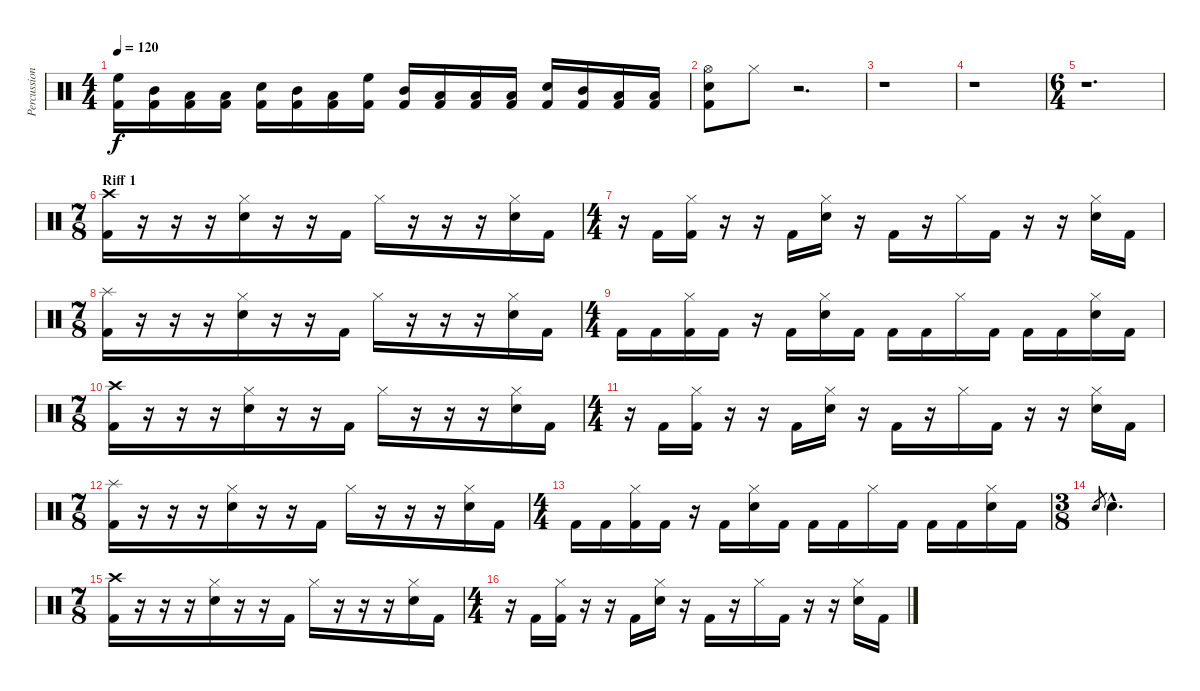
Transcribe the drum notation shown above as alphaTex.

\track ("Percussion" "Percussion") {instrument percussion}
\staff {score}
\articulation defaults
\ts (4 4)
\tempo 120
\clef neutral
\ks c
("High Floor Tom (hit)" "Kick (hit) 2").16{dy f} ("Mid Tom (hit)" "Kick (hit) 2").16 ("Low Tom (hit)" "Kick (hit) 2").16 ("Low Floor Tom (hit)" "Kick (hit) 2").16 ("Electric Snare (hit)" "Kick (hit) 2").16 ("Mid Tom (hit)" "Kick (hit) 2").16 ("Low Tom (hit)" "Kick (hit) 2").16 ("High Floor Tom (hit)" "Kick (hit) 2").16 ("Mid Tom (hit)" "Kick (hit) 2").16 ("Low Tom (hit)" "Kick (hit) 2").16 ("Low Floor Tom (hit)" "Kick (hit) 2").16 ("Low Tom (hit)" "Kick (hit) 2").16 ("Electric Snare (hit)" "Kick (hit) 2").16 ("Mid Tom (hit)" "Kick (hit) 2").16 ("Low Tom (hit)" "Kick (hit) 2").16 ("Low Floor Tom (hit)" "Kick (hit) 2").16 |
("Hi-Hat (open)" "Electric Snare (hit)" "Kick (hit) 2").8 "Hi-Hat (closed)".8 r.2{d} |
r.1 |
r.1 |
\ts (6 4)
r.1{d} |
\ts (7 8)
\section ("" "Riff 1")
("Crash high (hit)" "Kick (hit) 2").16 r.16 r.16 r.16 ("Hi-Hat (closed)" "Electric Snare (hit)").16 r.16 r.16 "Kick (hit) 2".16 "Hi-Hat (closed)".16 r.16 r.16 r.16 ("Hi-Hat (closed)" "Electric Snare (hit)").16 "Kick (hit) 2".16 |
\ts (4 4)
r.16 "Kick (hit) 2".16 ("Hi-Hat (closed)" "Kick (hit) 2").16 r.16 r.16 "Kick (hit) 2".16 ("Hi-Hat (closed)" "Electric Snare (hit)").16 r.16 "Kick (hit) 2".16 r.16 "Hi-Hat (closed)".16 "Kick (hit) 2".16 r.16 r.16 ("Hi-Hat (closed)" "Electric Snare (hit)").16 "Kick (hit) 2".16 |
\ts (7 8)
("Splash (hit)" "Kick (hit) 2").16 r.16 r.16 r.16 ("Hi-Hat (closed)" "Electric Snare (hit)").16 r.16 r.16 "Kick (hit) 2".16 "Hi-Hat (closed)".16 r.16 r.16 r.16 ("Hi-Hat (closed)" "Electric Snare (hit)").16 "Kick (hit) 2".16 |
\ts (4 4)
"Kick (hit) 2".16 "Kick (hit) 2".16 ("Hi-Hat (closed)" "Kick (hit) 2").16 "Kick (hit) 2".16 r.16 "Kick (hit) 2".16 ("Hi-Hat (closed)" "Electric Snare (hit)").16 "Kick (hit) 2".16 "Kick (hit) 2".16 "Kick (hit) 2".16 "Hi-Hat (closed)".16 "Kick (hit) 2".16 "Kick (hit) 2".16 "Kick (hit) 2".16 ("Hi-Hat (closed)" "Electric Snare (hit)").16 "Kick (hit) 2".16 |
\ts (7 8)
("Crash high (hit)" "Kick (hit) 2").16 r.16 r.16 r.16 ("Hi-Hat (closed)" "Electric Snare (hit)").16 r.16 r.16 "Kick (hit) 2".16 "Hi-Hat (closed)".16 r.16 r.16 r.16 ("Hi-Hat (closed)" "Electric Snare (hit)").16 "Kick (hit) 2".16 |
\ts (4 4)
r.16 "Kick (hit) 2".16 ("Hi-Hat (closed)" "Kick (hit) 2").16 r.16 r.16 "Kick (hit) 2".16 ("Hi-Hat (closed)" "Electric Snare (hit)").16 r.16 "Kick (hit) 2".16 r.16 "Hi-Hat (closed)".16 "Kick (hit) 2".16 r.16 r.16 ("Hi-Hat (closed)" "Electric Snare (hit)").16 "Kick (hit) 2".16 |
\ts (7 8)
("Splash (hit)" "Kick (hit) 2").16 r.16 r.16 r.16 ("Hi-Hat (closed)" "Electric Snare (hit)").16 r.16 r.16 "Kick (hit) 2".16 "Hi-Hat (closed)".16 r.16 r.16 r.16 ("Hi-Hat (closed)" "Electric Snare (hit)").16 "Kick (hit) 2".16 |
\ts (4 4)
"Kick (hit) 2".16 "Kick (hit) 2".16 ("Hi-Hat (closed)" "Kick (hit) 2").16 "Kick (hit) 2".16 r.16 "Kick (hit) 2".16 ("Hi-Hat (closed)" "Electric Snare (hit)").16 "Kick (hit) 2".16 "Kick (hit) 2".16 "Kick (hit) 2".16 "Hi-Hat (closed)".16 "Kick (hit) 2".16 "Kick (hit) 2".16 "Kick (hit) 2".16 ("Hi-Hat (closed)" "Electric Snare (hit)").16 "Kick (hit) 2".16 |
\ts (3 8)
"Electric Snare (hit)".8{gr} "Electric Snare (hit)"{hac}.4{d} |
\ts (7 8)
("Crash high (hit)" "Kick (hit) 2").16 r.16 r.16 r.16 ("Hi-Hat (closed)" "Electric Snare (hit)").16 r.16 r.16 "Kick (hit) 2".16 "Hi-Hat (closed)".16 r.16 r.16 r.16 ("Hi-Hat (closed)" "Electric Snare (hit)").16 "Kick (hit) 2".16 |
\ts (4 4)
r.16 "Kick (hit) 2".16 ("Hi-Hat (closed)" "Kick (hit) 2").16 r.16 r.16 "Kick (hit) 2".16 ("Hi-Hat (closed)" "Electric Snare (hit)").16 r.16 "Kick (hit) 2".16 r.16 "Hi-Hat (closed)".16 "Kick (hit) 2".16 r.16 r.16 ("Hi-Hat (closed)" "Electric Snare (hit)").16 "Kick (hit) 2".16
